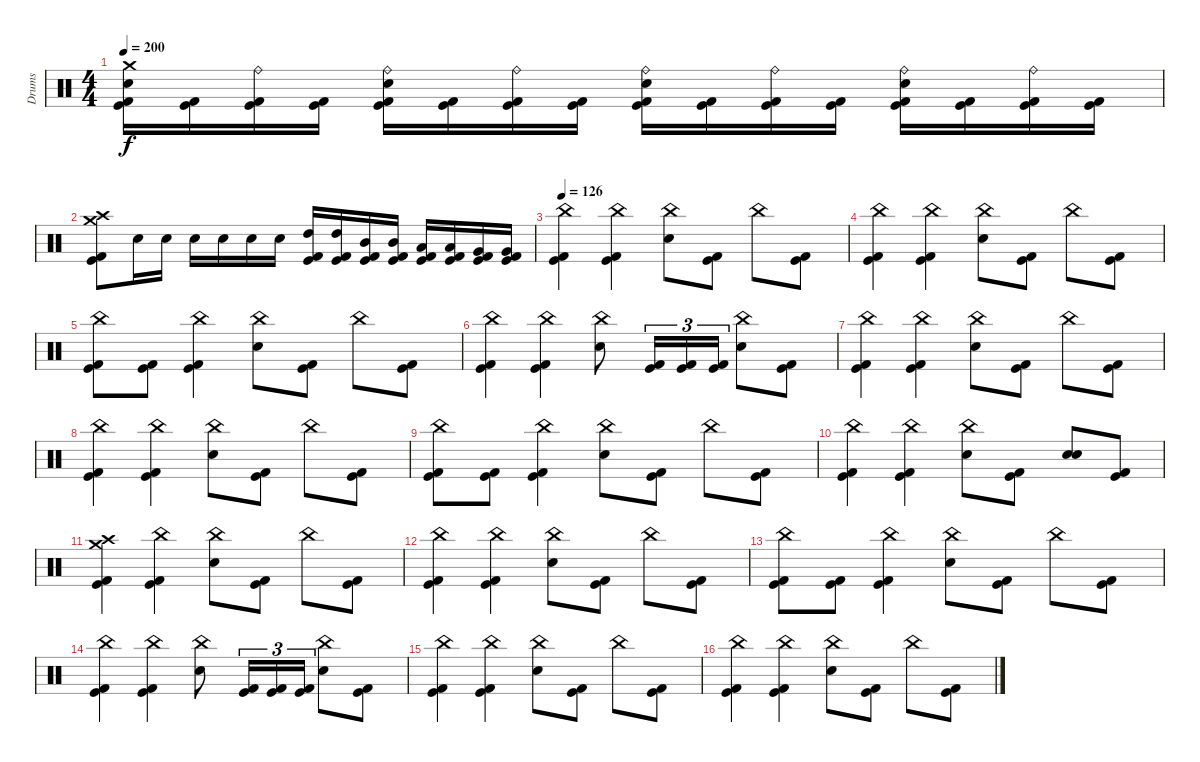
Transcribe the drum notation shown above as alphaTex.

\track ("Drums" "Drums") {instrument percussion}
\staff {score}
\articulation defaults
\ts (4 4)
\tempo 200
\clef neutral
\ks c
("Crash medium (hit)" "Electric Snare (hit)" "Kick (hit)" "Kick (hit) 2").16{dy f} ("Kick (hit)" "Kick (hit) 2").16 ("Ride (bell)" "Kick (hit)" "Kick (hit) 2").16 ("Kick (hit)" "Kick (hit) 2").16 ("Ride (bell)" "Electric Snare (hit)" "Kick (hit)" "Kick (hit) 2").16 ("Kick (hit)" "Kick (hit) 2").16 ("Ride (bell)" "Kick (hit)" "Kick (hit) 2").16 ("Kick (hit)" "Kick (hit) 2").16 ("Ride (bell)" "Electric Snare (hit)" "Kick (hit)" "Kick (hit) 2").16 ("Kick (hit)" "Kick (hit) 2").16 ("Ride (bell)" "Kick (hit)" "Kick (hit) 2").16 ("Kick (hit)" "Kick (hit) 2").16 ("Ride (bell)" "Electric Snare (hit)" "Kick (hit)" "Kick (hit) 2").16 ("Kick (hit)" "Kick (hit) 2").16 ("Ride (bell)" "Kick (hit)" "Kick (hit) 2").16 ("Kick (hit)" "Kick (hit) 2").16 |
("Crash medium (hit)" "Crash high (hit)" "Kick (hit)" "Kick (hit) 2").8 "Electric Snare (hit)".16 "Electric Snare (hit)".16 "Electric Snare (hit)".16 "Electric Snare (hit)".16 "Electric Snare (hit)".16 "Electric Snare (hit)".16 ("High Tom (hit)" "Kick (hit)" "Kick (hit) 2").16 ("High Tom (hit)" "Kick (hit)" "Kick (hit) 2").16 ("Mid Tom (hit)" "Kick (hit)" "Kick (hit) 2").16 ("Mid Tom (hit)" "Kick (hit)" "Kick (hit) 2").16 ("Low Tom (hit)" "Kick (hit)" "Kick (hit) 2").16 ("Low Tom (hit)" "Kick (hit)" "Kick (hit) 2").16 ("Very Low Tom (hit)" "Kick (hit)" "Kick (hit) 2").16 ("Very Low Tom (hit)" "Kick (hit)" "Kick (hit) 2").16 |
\tempo 126
("China (hit)" "Kick (hit)" "Kick (hit) 2").4 ("China (hit)" "Kick (hit)" "Kick (hit) 2").4 ("China (hit)" "Electric Snare (hit)").8 ("Kick (hit)" "Kick (hit) 2").8 "China (hit)".8 ("Kick (hit)" "Kick (hit) 2").8 |
("China (hit)" "Kick (hit)" "Kick (hit) 2").4 ("China (hit)" "Kick (hit)" "Kick (hit) 2").4 ("China (hit)" "Electric Snare (hit)").8 ("Kick (hit)" "Kick (hit) 2").8 "China (hit)".8 ("Kick (hit)" "Kick (hit) 2").8 |
("China (hit)" "Kick (hit)" "Kick (hit) 2").8 ("Kick (hit)" "Kick (hit) 2").8 ("China (hit)" "Kick (hit)" "Kick (hit) 2").4 ("China (hit)" "Electric Snare (hit)").8 ("Kick (hit)" "Kick (hit) 2").8 "China (hit)".8 ("Kick (hit)" "Kick (hit) 2").8 |
("China (hit)" "Kick (hit)" "Kick (hit) 2").4 ("China (hit)" "Kick (hit)" "Kick (hit) 2").4 ("China (hit)" "Electric Snare (hit)").8 ("Kick (hit)" "Kick (hit) 2").16{tu (3 2)} ("Kick (hit)" "Kick (hit) 2").16{tu (3 2)} ("Kick (hit)" "Kick (hit) 2").16{tu (3 2)} ("China (hit)" "Electric Snare (hit)").8 ("Kick (hit)" "Kick (hit) 2").8 |
("China (hit)" "Kick (hit)" "Kick (hit) 2").4 ("China (hit)" "Kick (hit)" "Kick (hit) 2").4 ("China (hit)" "Electric Snare (hit)").8 ("Kick (hit)" "Kick (hit) 2").8 "China (hit)".8 ("Kick (hit)" "Kick (hit) 2").8 |
("China (hit)" "Kick (hit)" "Kick (hit) 2").4 ("China (hit)" "Kick (hit)" "Kick (hit) 2").4 ("China (hit)" "Electric Snare (hit)").8 ("Kick (hit)" "Kick (hit) 2").8 "China (hit)".8 ("Kick (hit)" "Kick (hit) 2").8 |
("China (hit)" "Kick (hit)" "Kick (hit) 2").8 ("Kick (hit)" "Kick (hit) 2").8 ("China (hit)" "Kick (hit)" "Kick (hit) 2").4 ("China (hit)" "Electric Snare (hit)").8 ("Kick (hit)" "Kick (hit) 2").8 "China (hit)".8 ("Kick (hit)" "Kick (hit) 2").8 |
("China (hit)" "Kick (hit)" "Kick (hit) 2").4 ("China (hit)" "Kick (hit)" "Kick (hit) 2").4 ("China (hit)" "Electric Snare (hit)").8 ("Kick (hit)" "Kick (hit) 2").8 ("Electric Snare (hit)" "Electric Snare (hit)").8{bu 480} ("Kick (hit)" "Kick (hit) 2").8 |
("Crash medium (hit)" "Crash high (hit)" "Kick (hit)" "Kick (hit) 2").4 ("China (hit)" "Kick (hit)" "Kick (hit) 2").4 ("China (hit)" "Electric Snare (hit)").8 ("Kick (hit)" "Kick (hit) 2").8 "China (hit)".8 ("Kick (hit)" "Kick (hit) 2").8 |
("China (hit)" "Kick (hit)" "Kick (hit) 2").4 ("China (hit)" "Kick (hit)" "Kick (hit) 2").4 ("China (hit)" "Electric Snare (hit)").8 ("Kick (hit)" "Kick (hit) 2").8 "China (hit)".8 ("Kick (hit)" "Kick (hit) 2").8 |
("China (hit)" "Kick (hit)" "Kick (hit) 2").8 ("Kick (hit)" "Kick (hit) 2").8 ("China (hit)" "Kick (hit)" "Kick (hit) 2").4 ("China (hit)" "Electric Snare (hit)").8 ("Kick (hit)" "Kick (hit) 2").8 "China (hit)".8 ("Kick (hit)" "Kick (hit) 2").8 |
("China (hit)" "Kick (hit)" "Kick (hit) 2").4 ("China (hit)" "Kick (hit)" "Kick (hit) 2").4 ("China (hit)" "Electric Snare (hit)").8 ("Kick (hit)" "Kick (hit) 2").16{tu (3 2)} ("Kick (hit)" "Kick (hit) 2").16{tu (3 2)} ("Kick (hit)" "Kick (hit) 2").16{tu (3 2)} ("China (hit)" "Electric Snare (hit)").8 ("Kick (hit)" "Kick (hit) 2").8 |
("China (hit)" "Kick (hit)" "Kick (hit) 2").4 ("China (hit)" "Kick (hit)" "Kick (hit) 2").4 ("China (hit)" "Electric Snare (hit)").8 ("Kick (hit)" "Kick (hit) 2").8 "China (hit)".8 ("Kick (hit)" "Kick (hit) 2").8 |
("China (hit)" "Kick (hit)" "Kick (hit) 2").4 ("China (hit)" "Kick (hit)" "Kick (hit) 2").4 ("China (hit)" "Electric Snare (hit)").8 ("Kick (hit)" "Kick (hit) 2").8 "China (hit)".8 ("Kick (hit)" "Kick (hit) 2").8
